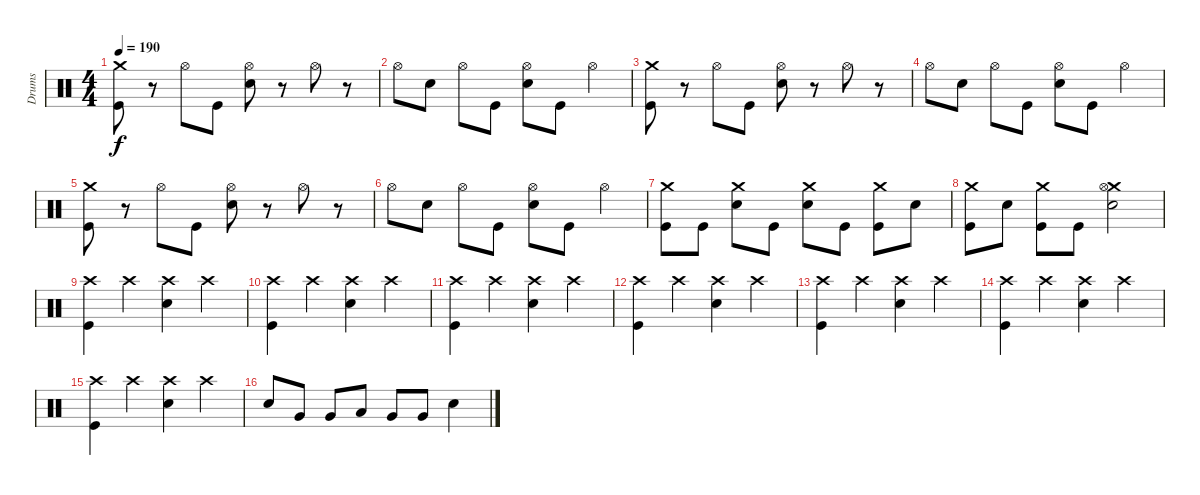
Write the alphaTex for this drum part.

\track ("Drums" "Drums") {instrument percussion}
\staff {score}
\articulation defaults
\ts (4 4)
\tempo 190
\clef neutral
\ks c
("Crash medium (hit)" "Kick (hit)").8{dy f} r.8 "Hi-Hat (open)".8 "Kick (hit)".8 ("Electric Snare (hit)" "Hi-Hat (open)").8 r.8 "Hi-Hat (open)".8 r.8 |
"Hi-Hat (open)".8 "Electric Snare (hit)".8 "Hi-Hat (open)".8 "Kick (hit)".8 ("Electric Snare (hit)" "Hi-Hat (open)").8 "Kick (hit)".8 "Hi-Hat (open)".4 |
("Crash medium (hit)" "Kick (hit)").8 r.8 "Hi-Hat (open)".8 "Kick (hit)".8 ("Electric Snare (hit)" "Hi-Hat (open)").8 r.8 "Hi-Hat (open)".8 r.8 |
"Hi-Hat (open)".8 "Electric Snare (hit)".8 "Hi-Hat (open)".8 "Kick (hit)".8 ("Electric Snare (hit)" "Hi-Hat (open)").8 "Kick (hit)".8 "Hi-Hat (open)".4 |
("Crash medium (hit)" "Kick (hit)").8 r.8 "Hi-Hat (open)".8 "Kick (hit)".8 ("Electric Snare (hit)" "Hi-Hat (open)").8 r.8 "Hi-Hat (open)".8 r.8 |
"Hi-Hat (open)".8 "Electric Snare (hit)".8 "Hi-Hat (open)".8 "Kick (hit)".8 ("Electric Snare (hit)" "Hi-Hat (open)").8 "Kick (hit)".8 "Hi-Hat (open)".4 |
("Crash medium (hit)" "Kick (hit)").8 "Kick (hit)".8 ("Crash medium (hit)" "Electric Snare (hit)").8 "Kick (hit)".8 ("Crash medium (hit)" "Electric Snare (hit)").8 "Kick (hit)".8 ("Crash medium (hit)" "Kick (hit)").8 "Electric Snare (hit)".8 |
("Crash medium (hit)" "Kick (hit)").8 "Electric Snare (hit)".8 ("Crash medium (hit)" "Kick (hit)").8 "Kick (hit)".8 ("Crash medium (hit)" "Electric Snare (hit)" "Hi-Hat (open)").2 |
("Crash high (hit)" "Kick (hit)").4 "Crash high (hit)".4 ("Crash high (hit)" "Electric Snare (hit)").4 "Crash high (hit)".4 |
("Crash high (hit)" "Kick (hit)").4 "Crash high (hit)".4 ("Crash high (hit)" "Electric Snare (hit)").4 "Crash high (hit)".4 |
("Crash high (hit)" "Kick (hit)").4 "Crash high (hit)".4 ("Crash high (hit)" "Electric Snare (hit)").4 "Crash high (hit)".4 |
("Crash high (hit)" "Kick (hit)").4 "Crash high (hit)".4 ("Crash high (hit)" "Electric Snare (hit)").4 "Crash high (hit)".4 |
("Crash high (hit)" "Kick (hit)").4 "Crash high (hit)".4 ("Crash high (hit)" "Electric Snare (hit)").4 "Crash high (hit)".4 |
("Crash high (hit)" "Kick (hit)").4 "Crash high (hit)".4 ("Crash high (hit)" "Electric Snare (hit)").4 "Crash high (hit)".4 |
("Crash high (hit)" "Kick (hit)").4 "Crash high (hit)".4 ("Crash high (hit)" "Electric Snare (hit)").4 "Crash high (hit)".4 |
"Electric Snare (hit)".8 "Very Low Tom (hit)".8 "Very Low Tom (hit)".8 "Low Tom (hit)".8 "Very Low Tom (hit)".8 "Very Low Tom (hit)".8 "Electric Snare (hit)".4
